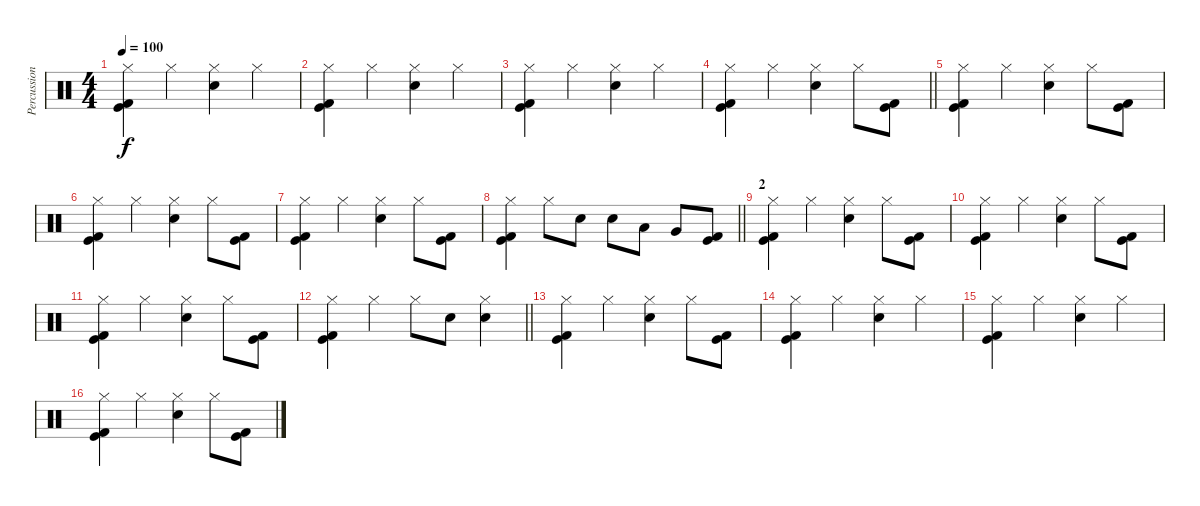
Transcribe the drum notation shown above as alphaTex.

\track ("Percussion" "Percussion") {instrument percussion}
\staff {score}
\articulation defaults
\ts (4 4)
\section ("" "")
\tempo 100
\clef neutral
\ks c
("Hi-Hat (closed)" "Kick (hit)" "Kick (hit) 2").4{dy f} "Hi-Hat (closed)".4 ("Hi-Hat (closed)" "Electric Snare (hit)").4 "Hi-Hat (closed)".4 |
("Hi-Hat (closed)" "Kick (hit)" "Kick (hit) 2").4 "Hi-Hat (closed)".4 ("Hi-Hat (closed)" "Electric Snare (hit)").4 "Hi-Hat (closed)".4 |
("Hi-Hat (closed)" "Kick (hit)" "Kick (hit) 2").4 "Hi-Hat (closed)".4 ("Hi-Hat (closed)" "Electric Snare (hit)").4 "Hi-Hat (closed)".4 |
\barLineRight lightlight
("Hi-Hat (closed)" "Kick (hit)" "Kick (hit) 2").4 "Hi-Hat (closed)".4 ("Hi-Hat (closed)" "Electric Snare (hit)").4 "Hi-Hat (closed)".8 ("Kick (hit)" "Kick (hit) 2").8 |
\section ("" "")
("Hi-Hat (closed)" "Kick (hit)" "Kick (hit) 2").4 "Hi-Hat (closed)".4 ("Hi-Hat (closed)" "Electric Snare (hit)").4 "Hi-Hat (closed)".8 ("Kick (hit)" "Kick (hit) 2").8 |
("Hi-Hat (closed)" "Kick (hit)" "Kick (hit) 2").4 "Hi-Hat (closed)".4 ("Hi-Hat (closed)" "Electric Snare (hit)").4 "Hi-Hat (closed)".8 ("Kick (hit)" "Kick (hit) 2").8 |
("Hi-Hat (closed)" "Kick (hit)" "Kick (hit) 2").4 "Hi-Hat (closed)".4 ("Hi-Hat (closed)" "Electric Snare (hit)").4 "Hi-Hat (closed)".8 ("Kick (hit)" "Kick (hit) 2").8 |
\barLineRight lightlight
("Hi-Hat (closed)" "Kick (hit)" "Kick (hit) 2").4 "Hi-Hat (closed)".8 "Electric Snare (hit)".8 "Electric Snare (hit)".8 "Low Tom (hit)".8 "Very Low Tom (hit)".8 ("Kick (hit)" "Kick (hit) 2").8 |
\section ("" "2")
("Hi-Hat (closed)" "Kick (hit)" "Kick (hit) 2").4 "Hi-Hat (closed)".4 ("Hi-Hat (closed)" "Electric Snare (hit)").4 "Hi-Hat (closed)".8 ("Kick (hit)" "Kick (hit) 2").8 |
("Hi-Hat (closed)" "Kick (hit)" "Kick (hit) 2").4 "Hi-Hat (closed)".4 ("Hi-Hat (closed)" "Electric Snare (hit)").4 "Hi-Hat (closed)".8 ("Kick (hit)" "Kick (hit) 2").8 |
("Hi-Hat (closed)" "Kick (hit)" "Kick (hit) 2").4 "Hi-Hat (closed)".4 ("Hi-Hat (closed)" "Electric Snare (hit)").4 "Hi-Hat (closed)".8 ("Kick (hit)" "Kick (hit) 2").8 |
\barLineRight lightlight
("Hi-Hat (closed)" "Kick (hit)" "Kick (hit) 2").4 "Hi-Hat (closed)".4 "Hi-Hat (closed)".8 "Electric Snare (hit)".8 ("Hi-Hat (closed)" "Electric Snare (hit)").4 |
\section ("" "")
("Hi-Hat (closed)" "Kick (hit)" "Kick (hit) 2").4 "Hi-Hat (closed)".4 ("Hi-Hat (closed)" "Electric Snare (hit)").4 "Hi-Hat (closed)".8 ("Kick (hit)" "Kick (hit) 2").8 |
("Hi-Hat (closed)" "Kick (hit)" "Kick (hit) 2").4 "Hi-Hat (closed)".4 ("Hi-Hat (closed)" "Electric Snare (hit)").4 "Hi-Hat (closed)".4 |
("Hi-Hat (closed)" "Kick (hit)" "Kick (hit) 2").4 "Hi-Hat (closed)".4 ("Hi-Hat (closed)" "Electric Snare (hit)").4 "Hi-Hat (closed)".4 |
("Hi-Hat (closed)" "Kick (hit)" "Kick (hit) 2").4 "Hi-Hat (closed)".4 ("Hi-Hat (closed)" "Electric Snare (hit)").4 "Hi-Hat (closed)".8 ("Kick (hit)" "Kick (hit) 2").8
